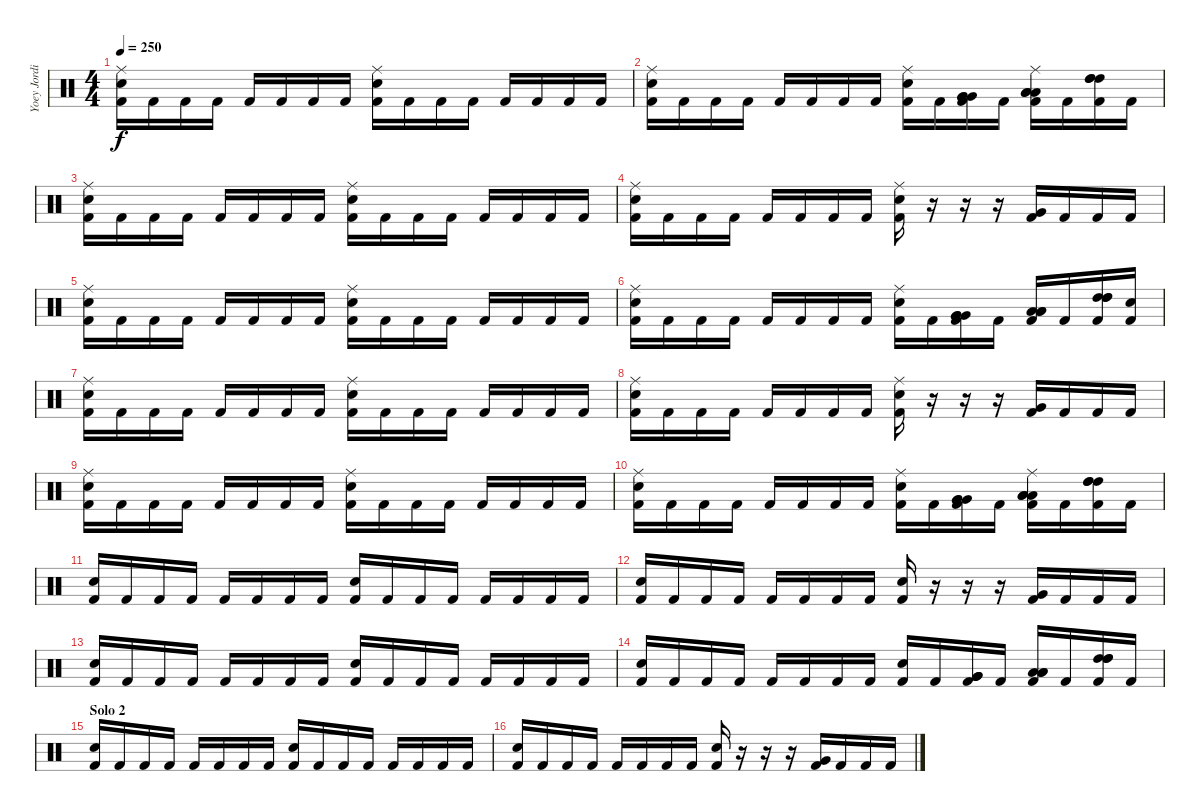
\track ("Yoey Jordison" "Yoey Jordi") {instrument percussion}
\staff {score}
\articulation defaults
\ts (4 4)
\tempo 250
\clef neutral
\ks c
("Ride (middle)" "Kick (hit) 2" "Electric Snare (hit)").16{dy f} "Kick (hit) 2".16 "Kick (hit) 2".16 "Kick (hit) 2".16 "Kick (hit) 2".16 "Kick (hit) 2".16 "Kick (hit) 2".16 "Kick (hit) 2".16 ("Ride (middle)" "Kick (hit) 2" "Snare (hit) 2").16 "Kick (hit) 2".16 "Kick (hit) 2".16 "Kick (hit) 2".16 "Kick (hit) 2".16 "Kick (hit) 2".16 "Kick (hit) 2".16 "Kick (hit) 2".16 |
("Ride (middle)" "Kick (hit) 2" "Electric Snare (hit)").16 "Kick (hit) 2".16 "Kick (hit) 2".16 "Kick (hit) 2".16 "Kick (hit) 2".16 "Kick (hit) 2".16 "Kick (hit) 2".16 "Kick (hit) 2".16 ("Ride (middle)" "Kick (hit) 2" "Electric Snare (hit)").16 "Kick (hit) 2".16 ("Very Low Tom (hit)" "Kick (hit) 2" "Very Low Tom (hit)" "Very Low Tom (hit)").16 "Kick (hit) 2".16 ("Ride (middle)" "Low Floor Tom (hit)" "Kick (hit) 2" "Low Floor Tom (hit)" "Low Floor Tom (hit)").16 "Kick (hit) 2".16 ("High Tom (hit)" "Kick (hit) 2" "High Tom (hit)" "High Tom (hit)").16 "Kick (hit) 2".16 |
("Ride (middle)" "Kick (hit) 2" "Electric Snare (hit)").16 "Kick (hit) 2".16 "Kick (hit) 2".16 "Kick (hit) 2".16 "Kick (hit) 2".16 "Kick (hit) 2".16 "Kick (hit) 2".16 "Kick (hit) 2".16 ("Ride (middle)" "Kick (hit) 2" "Snare (hit) 2").16 "Kick (hit) 2".16 "Kick (hit) 2".16 "Kick (hit) 2".16 "Kick (hit) 2".16 "Kick (hit) 2".16 "Kick (hit) 2".16 "Kick (hit) 2".16 |
("Ride (middle)" "Kick (hit) 2" "Electric Snare (hit)").16 "Kick (hit) 2".16 "Kick (hit) 2".16 "Kick (hit) 2".16 "Kick (hit) 2".16 "Kick (hit) 2".16 "Kick (hit) 2".16 "Kick (hit) 2".16 ("Ride (middle)" "Kick (hit) 2" "Snare (hit) 2").16 r.16 r.16 r.16 ("Kick (hit) 2" "Very Low Tom (hit)").16 "Kick (hit) 2".16 "Kick (hit) 2".16 "Kick (hit) 2".16 |
("Ride (middle)" "Kick (hit) 2" "Electric Snare (hit)").16 "Kick (hit) 2".16 "Kick (hit) 2".16 "Kick (hit) 2".16 "Kick (hit) 2".16 "Kick (hit) 2".16 "Kick (hit) 2".16 "Kick (hit) 2".16 ("Ride (middle)" "Kick (hit) 2" "Snare (hit) 2").16 "Kick (hit) 2".16 "Kick (hit) 2".16 "Kick (hit) 2".16 "Kick (hit) 2".16 "Kick (hit) 2".16 "Kick (hit) 2".16 "Kick (hit) 2".16 |
("Ride (middle)" "Kick (hit) 2" "Electric Snare (hit)").16 "Kick (hit) 2".16 "Kick (hit) 2".16 "Kick (hit) 2".16 "Kick (hit) 2".16 "Kick (hit) 2".16 "Kick (hit) 2".16 "Kick (hit) 2".16 ("Ride (middle)" "Kick (hit) 2" "Electric Snare (hit)").16 "Kick (hit) 2".16 ("Very Low Tom (hit)" "Kick (hit) 2" "Very Low Tom (hit)" "Very Low Tom (hit)").16 "Kick (hit) 2".16 ("Low Floor Tom (hit)" "Kick (hit) 2" "Low Floor Tom (hit)" "Low Floor Tom (hit)").16 "Kick (hit) 2".16 ("High Tom (hit)" "Kick (hit) 2" "High Tom (hit)" "High Tom (hit)").16 ("Kick (hit) 2" "Electric Snare (hit)").16 |
("Ride (middle)" "Kick (hit) 2" "Electric Snare (hit)").16 "Kick (hit) 2".16 "Kick (hit) 2".16 "Kick (hit) 2".16 "Kick (hit) 2".16 "Kick (hit) 2".16 "Kick (hit) 2".16 "Kick (hit) 2".16 ("Ride (middle)" "Kick (hit) 2" "Snare (hit) 2").16 "Kick (hit) 2".16 "Kick (hit) 2".16 "Kick (hit) 2".16 "Kick (hit) 2".16 "Kick (hit) 2".16 "Kick (hit) 2".16 "Kick (hit) 2".16 |
("Ride (middle)" "Kick (hit) 2" "Electric Snare (hit)").16 "Kick (hit) 2".16 "Kick (hit) 2".16 "Kick (hit) 2".16 "Kick (hit) 2".16 "Kick (hit) 2".16 "Kick (hit) 2".16 "Kick (hit) 2".16 ("Ride (middle)" "Kick (hit) 2" "Snare (hit) 2").16 r.16 r.16 r.16 ("Kick (hit) 2" "Very Low Tom (hit)").16 "Kick (hit) 2".16 "Kick (hit) 2".16 "Kick (hit) 2".16 |
("Ride (middle)" "Kick (hit) 2" "Electric Snare (hit)").16 "Kick (hit) 2".16 "Kick (hit) 2".16 "Kick (hit) 2".16 "Kick (hit) 2".16 "Kick (hit) 2".16 "Kick (hit) 2".16 "Kick (hit) 2".16 ("Ride (middle)" "Kick (hit) 2" "Snare (hit) 2").16 "Kick (hit) 2".16 "Kick (hit) 2".16 "Kick (hit) 2".16 "Kick (hit) 2".16 "Kick (hit) 2".16 "Kick (hit) 2".16 "Kick (hit) 2".16 |
("Ride (middle)" "Kick (hit) 2" "Electric Snare (hit)").16 "Kick (hit) 2".16 "Kick (hit) 2".16 "Kick (hit) 2".16 "Kick (hit) 2".16 "Kick (hit) 2".16 "Kick (hit) 2".16 "Kick (hit) 2".16 ("Ride (middle)" "Kick (hit) 2" "Electric Snare (hit)").16 "Kick (hit) 2".16 ("Very Low Tom (hit)" "Kick (hit) 2" "Very Low Tom (hit)" "Very Low Tom (hit)").16 "Kick (hit) 2".16 ("Ride (middle)" "Low Floor Tom (hit)" "Kick (hit) 2" "Low Floor Tom (hit)" "Low Floor Tom (hit)").16 "Kick (hit) 2".16 ("High Tom (hit)" "Kick (hit) 2" "High Tom (hit)" "High Tom (hit)").16 "Kick (hit) 2".16 |
("Kick (hit) 2" "Electric Snare (hit)").16 "Kick (hit) 2".16 "Kick (hit) 2".16 "Kick (hit) 2".16 "Kick (hit) 2".16 "Kick (hit) 2".16 "Kick (hit) 2".16 "Kick (hit) 2".16 ("Kick (hit) 2" "Snare (hit) 2").16 "Kick (hit) 2".16 "Kick (hit) 2".16 "Kick (hit) 2".16 "Kick (hit) 2".16 "Kick (hit) 2".16 "Kick (hit) 2".16 "Kick (hit) 2".16 |
("Kick (hit) 2" "Electric Snare (hit)").16 "Kick (hit) 2".16 "Kick (hit) 2".16 "Kick (hit) 2".16 "Kick (hit) 2".16 "Kick (hit) 2".16 "Kick (hit) 2".16 "Kick (hit) 2".16 ("Kick (hit) 2" "Snare (hit) 2").16 r.16 r.16 r.16 ("Kick (hit) 2" "Very Low Tom (hit)").16 "Kick (hit) 2".16 "Kick (hit) 2".16 "Kick (hit) 2".16 |
("Kick (hit) 2" "Electric Snare (hit)").16 "Kick (hit) 2".16 "Kick (hit) 2".16 "Kick (hit) 2".16 "Kick (hit) 2".16 "Kick (hit) 2".16 "Kick (hit) 2".16 "Kick (hit) 2".16 ("Kick (hit) 2" "Snare (hit) 2").16 "Kick (hit) 2".16 "Kick (hit) 2".16 "Kick (hit) 2".16 "Kick (hit) 2".16 "Kick (hit) 2".16 "Kick (hit) 2".16 "Kick (hit) 2".16 |
("Kick (hit) 2" "Electric Snare (hit)").16 "Kick (hit) 2".16 "Kick (hit) 2".16 "Kick (hit) 2".16 "Kick (hit) 2".16 "Kick (hit) 2".16 "Kick (hit) 2".16 "Kick (hit) 2".16 ("Kick (hit) 2" "Electric Snare (hit)").16 "Kick (hit) 2".16 ("Very Low Tom (hit)" "Kick (hit) 2" "Very Low Tom (hit)" "Very Low Tom (hit)").16 "Kick (hit) 2".16 ("Low Floor Tom (hit)" "Kick (hit) 2" "Low Floor Tom (hit)" "Low Floor Tom (hit)").16 "Kick (hit) 2".16 ("High Tom (hit)" "Kick (hit) 2" "High Tom (hit)" "High Tom (hit)").16 "Kick (hit) 2".16 |
\section ("" "Solo 2")
("Kick (hit) 2" "Electric Snare (hit)").16 "Kick (hit) 2".16 "Kick (hit) 2".16 "Kick (hit) 2".16 "Kick (hit) 2".16 "Kick (hit) 2".16 "Kick (hit) 2".16 "Kick (hit) 2".16 ("Kick (hit) 2" "Snare (hit) 2").16 "Kick (hit) 2".16 "Kick (hit) 2".16 "Kick (hit) 2".16 "Kick (hit) 2".16 "Kick (hit) 2".16 "Kick (hit) 2".16 "Kick (hit) 2".16 |
("Kick (hit) 2" "Electric Snare (hit)").16 "Kick (hit) 2".16 "Kick (hit) 2".16 "Kick (hit) 2".16 "Kick (hit) 2".16 "Kick (hit) 2".16 "Kick (hit) 2".16 "Kick (hit) 2".16 ("Kick (hit) 2" "Snare (hit) 2").16 r.16 r.16 r.16 ("Kick (hit) 2" "Very Low Tom (hit)").16 "Kick (hit) 2".16 "Kick (hit) 2".16 "Kick (hit) 2".16
